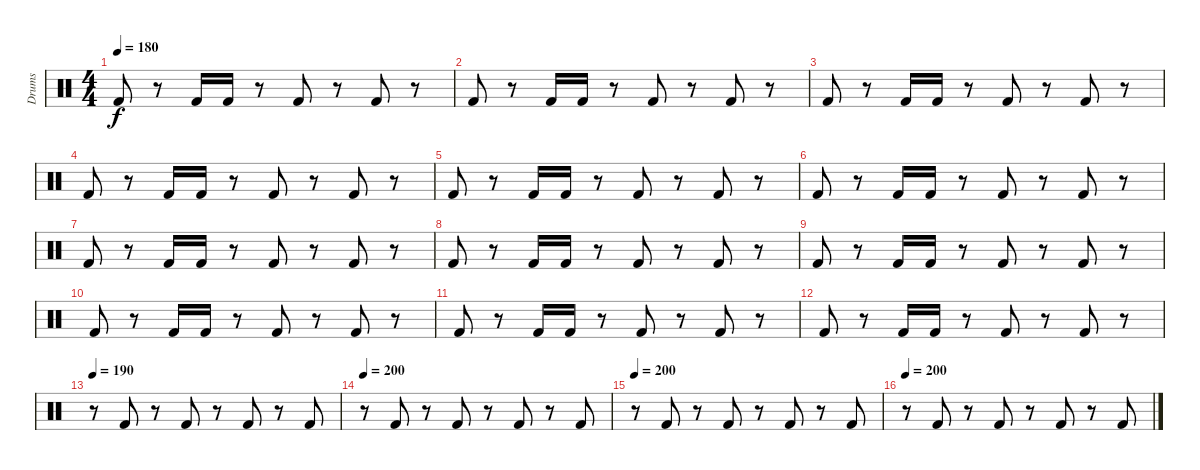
\track ("Drums" "Drums") {instrument percussion}
\staff {score}
\articulation defaults
\ts (4 4)
\tempo 180
\clef neutral
\ks c "Kick (hit) 2".8{dy f}
r.8 "Kick (hit) 2".16 "Kick (hit) 2".16 r.8 "Kick (hit) 2".8 r.8 "Kick (hit) 2".8 r.8 |
"Kick (hit) 2".8 r.8 "Kick (hit) 2".16 "Kick (hit) 2".16 r.8 "Kick (hit) 2".8 r.8 "Kick (hit) 2".8 r.8 |
"Kick (hit) 2".8 r.8 "Kick (hit) 2".16 "Kick (hit) 2".16 r.8 "Kick (hit) 2".8 r.8 "Kick (hit) 2".8 r.8 |
"Kick (hit) 2".8 r.8 "Kick (hit) 2".16 "Kick (hit) 2".16 r.8 "Kick (hit) 2".8 r.8 "Kick (hit) 2".8 r.8 |
"Kick (hit) 2".8 r.8 "Kick (hit) 2".16 "Kick (hit) 2".16 r.8 "Kick (hit) 2".8 r.8 "Kick (hit) 2".8 r.8 |
"Kick (hit) 2".8 r.8 "Kick (hit) 2".16 "Kick (hit) 2".16 r.8 "Kick (hit) 2".8 r.8 "Kick (hit) 2".8 r.8 |
"Kick (hit) 2".8 r.8 "Kick (hit) 2".16 "Kick (hit) 2".16 r.8 "Kick (hit) 2".8 r.8 "Kick (hit) 2".8 r.8 |
"Kick (hit) 2".8 r.8 "Kick (hit) 2".16 "Kick (hit) 2".16 r.8 "Kick (hit) 2".8 r.8 "Kick (hit) 2".8 r.8 |
"Kick (hit) 2".8 r.8 "Kick (hit) 2".16 "Kick (hit) 2".16 r.8 "Kick (hit) 2".8 r.8 "Kick (hit) 2".8 r.8 |
"Kick (hit) 2".8 r.8 "Kick (hit) 2".16 "Kick (hit) 2".16 r.8 "Kick (hit) 2".8 r.8 "Kick (hit) 2".8 r.8 |
"Kick (hit) 2".8 r.8 "Kick (hit) 2".16 "Kick (hit) 2".16 r.8 "Kick (hit) 2".8 r.8 "Kick (hit) 2".8 r.8 |
"Kick (hit) 2".8 r.8 "Kick (hit) 2".16 "Kick (hit) 2".16 r.8 "Kick (hit) 2".8 r.8 "Kick (hit) 2".8 r.8 |
\tempo 200
\tempo 190
r.8 "Kick (hit) 2".8 r.8 "Kick (hit) 2".8 r.8 "Kick (hit) 2".8 r.8 "Kick (hit) 2".8 |
\tempo 200
r.8 "Kick (hit) 2".8 r.8 "Kick (hit) 2".8 r.8 "Kick (hit) 2".8 r.8 "Kick (hit) 2".8 |
\tempo 200
r.8 "Kick (hit) 2".8 r.8 "Kick (hit) 2".8 r.8 "Kick (hit) 2".8 r.8 "Kick (hit) 2".8 |
\tempo 200
r.8 "Kick (hit) 2".8 r.8 "Kick (hit) 2".8 r.8 "Kick (hit) 2".8 r.8 "Kick (hit) 2".8
